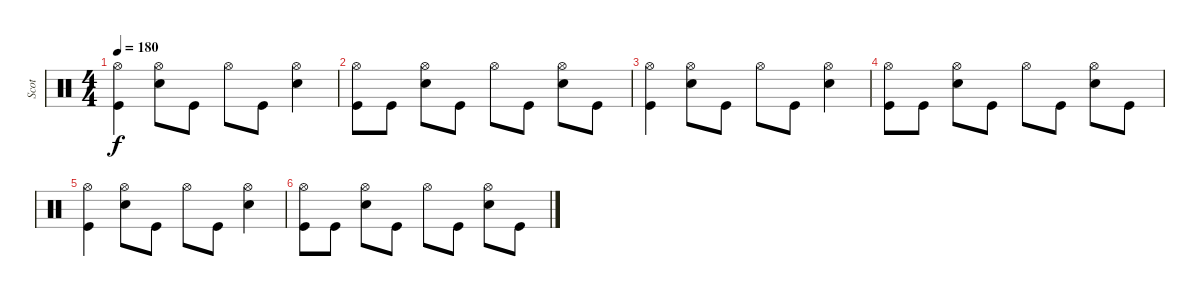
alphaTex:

\track ("Scot" "Scot") {instrument percussion}
\staff {score}
\articulation defaults
\ts (4 4)
\tempo 180
\clef neutral
\ks c
("Hi-Hat (open)" "Kick (hit)").4{dy f} ("Electric Snare (hit)" "Hi-Hat (open)").8 "Kick (hit)".8 "Hi-Hat (open)".8 "Kick (hit)".8 ("Electric Snare (hit)" "Hi-Hat (open)").4 |
("Hi-Hat (open)" "Kick (hit)").8 "Kick (hit)".8 ("Electric Snare (hit)" "Hi-Hat (open)").8 "Kick (hit)".8 "Hi-Hat (open)".8 "Kick (hit)".8 ("Electric Snare (hit)" "Hi-Hat (open)").8 "Kick (hit)".8 |
("Hi-Hat (open)" "Kick (hit)").4 ("Electric Snare (hit)" "Hi-Hat (open)").8 "Kick (hit)".8 "Hi-Hat (open)".8 "Kick (hit)".8 ("Electric Snare (hit)" "Hi-Hat (open)").4 |
("Hi-Hat (open)" "Kick (hit)").8 "Kick (hit)".8 ("Electric Snare (hit)" "Hi-Hat (open)").8 "Kick (hit)".8 "Hi-Hat (open)".8 "Kick (hit)".8 ("Electric Snare (hit)" "Hi-Hat (open)").8 "Kick (hit)".8 |
("Hi-Hat (open)" "Kick (hit)").4 ("Electric Snare (hit)" "Hi-Hat (open)").8 "Kick (hit)".8 "Hi-Hat (open)".8 "Kick (hit)".8 ("Electric Snare (hit)" "Hi-Hat (open)").4 |
("Hi-Hat (open)" "Kick (hit)").8 "Kick (hit)".8 ("Electric Snare (hit)" "Hi-Hat (open)").8 "Kick (hit)".8 "Hi-Hat (open)".8 "Kick (hit)".8 ("Electric Snare (hit)" "Hi-Hat (open)").8 "Kick (hit)".8
